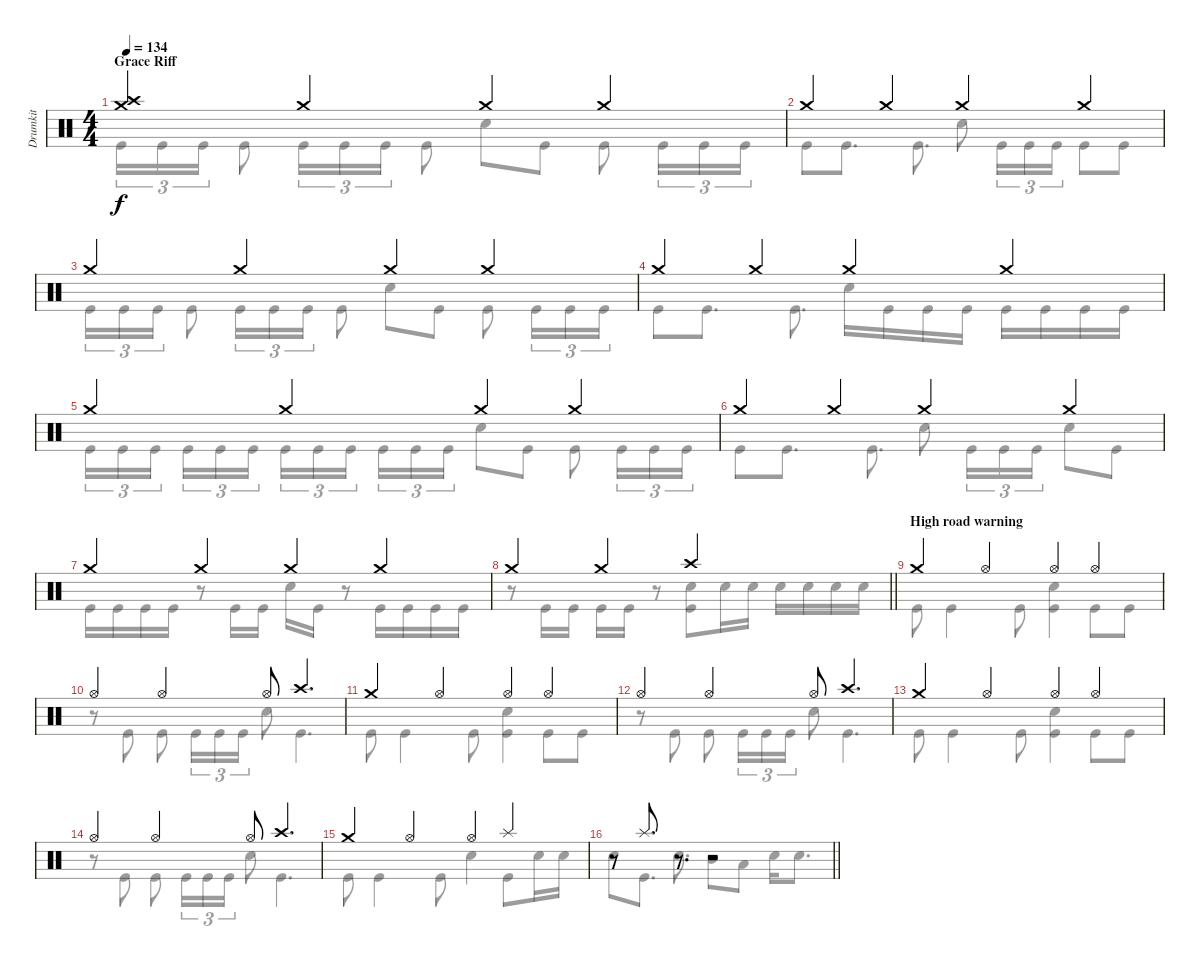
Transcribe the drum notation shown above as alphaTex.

\track ("Drumkit" "Drumkit") {instrument percussion}
\staff {score}
\articulation defaults
\voice
\ts (4 4)
\section ("" "Grace Riff")
\tempo 134
\clef neutral
\ks c
("Crash high (hit)" "Crash medium (hit)").4{dy f} "Crash medium (hit)".4 "Crash medium (hit)".4 "Crash medium (hit)".4 |
"Crash medium (hit)".4 "Crash medium (hit)".4 "Crash medium (hit)".4 "Crash medium (hit)".4 |
"Crash medium (hit)".4 "Crash medium (hit)".4 "Crash medium (hit)".4 "Crash medium (hit)".4 |
"Crash medium (hit)".4 "Crash medium (hit)".4 "Crash medium (hit)".4 "Crash medium (hit)".4 |
"Crash medium (hit)".4 "Crash medium (hit)".4 "Crash medium (hit)".4 "Crash medium (hit)".4 |
"Crash medium (hit)".4 "Crash medium (hit)".4 "Crash medium (hit)".4 "Crash medium (hit)".4 |
"Crash medium (hit)".4 "Crash medium (hit)".4 "Crash medium (hit)".4 "Crash medium (hit)".4 |
\barLineRight lightlight "Crash medium (hit)".4 "Crash medium (hit)".4 "Crash high (hit)".2
|
\section ("" "High road warning")
"Crash medium (hit)".4 "Hi-Hat (open)".4 "Hi-Hat (open)".4 "Hi-Hat (open)".4 |
"Hi-Hat (open)".4 "Hi-Hat (open)".4 "Hi-Hat (open)".8 "Crash high (hit)".4{d} |
"Crash medium (hit)".4 "Hi-Hat (open)".4 "Hi-Hat (open)".4 "Hi-Hat (open)".4 |
"Hi-Hat (open)".4 "Hi-Hat (open)".4 "Hi-Hat (open)".8 "Crash high (hit)".4{d} |
"Crash medium (hit)".4 "Hi-Hat (open)".4 "Hi-Hat (open)".4 "Hi-Hat (open)".4 |
"Hi-Hat (open)".4 "Hi-Hat (open)".4 "Hi-Hat (open)".8 "Crash high (hit)".4{d} |
"Crash medium (hit)".4 "Hi-Hat (open)".4 "Hi-Hat (open)".4 "Splash (hit)".4 |
\barLineRight lightlight
r.8 "Splash (hit)".8{d} r.8{d} r.2
\voice
\clef neutral
\ottava regular
\simile none
\ks c "Kick (hit)".16{tu (3 2) dy f} "Kick (hit)".16{tu (3 2)} "Kick (hit)".16{tu (3 2)} "Kick (hit)".8 "Kick (hit)".16{tu (3 2)} "Kick (hit)".16{tu (3 2)} "Kick (hit)".16{tu (3 2)} "Kick (hit)".8 "Snare (hit) 2".8 "Kick (hit)".8 "Kick (hit)".8 "Kick (hit)".16{tu (3 2)} "Kick (hit)".16{tu (3 2)} "Kick (hit)".16{tu (3 2)}
|
"Kick (hit)".8 "Kick (hit)".8{d} "Kick (hit)".8{d} "Snare (hit) 2".8 "Kick (hit)".16{tu (3 2)} "Kick (hit)".16{tu (3 2)} "Kick (hit)".16{tu (3 2)} "Kick (hit)".8 "Kick (hit)".8 |
"Kick (hit)".16{tu (3 2)} "Kick (hit)".16{tu (3 2)} "Kick (hit)".16{tu (3 2)} "Kick (hit)".8 "Kick (hit)".16{tu (3 2)} "Kick (hit)".16{tu (3 2)} "Kick (hit)".16{tu (3 2)} "Kick (hit)".8 "Snare (hit) 2".8 "Kick (hit)".8 "Kick (hit)".8 "Kick (hit)".16{tu (3 2)} "Kick (hit)".16{tu (3 2)} "Kick (hit)".16{tu (3 2)} |
"Kick (hit)".8 "Kick (hit)".8{d} "Kick (hit)".8{d} "Snare (hit) 2".16 "Kick (hit)".16 "Kick (hit)".16 "Kick (hit)".16 "Kick (hit)".16 "Kick (hit)".16 "Kick (hit)".16 "Kick (hit)".16 |
"Kick (hit)".16{tu (3 2)} "Kick (hit)".16{tu (3 2)} "Kick (hit)".16{tu (3 2) beam splitsecondary} "Kick (hit)".16{tu (3 2)} "Kick (hit)".16{tu (3 2)} "Kick (hit)".16{tu (3 2)} "Kick (hit)".16{tu (3 2)} "Kick (hit)".16{tu (3 2)} "Kick (hit)".16{tu (3 2) beam splitsecondary} "Kick (hit)".16{tu (3 2)} "Kick (hit)".16{tu (3 2)} "Kick (hit)".16{tu (3 2)} "Snare (hit) 2".8 "Kick (hit)".8 "Kick (hit)".8 "Kick (hit)".16{tu (3 2)} "Kick (hit)".16{tu (3 2)} "Kick (hit)".16{tu (3 2)} |
"Kick (hit)".8 "Kick (hit)".8{d} "Kick (hit)".8{d} "Snare (hit) 2".8 "Kick (hit)".16{tu (3 2)} "Kick (hit)".16{tu (3 2)} "Kick (hit)".16{tu (3 2)} "Snare (hit) 2".8 "Kick (hit)".8 |
"Kick (hit)".16 "Kick (hit)".16 "Kick (hit)".16 "Kick (hit)".16 r.8 "Kick (hit)".16 "Kick (hit)".16 "Snare (hit) 2".16 "Kick (hit)".16 r.8 "Kick (hit)".16 "Kick (hit)".16 "Kick (hit)".16 "Kick (hit)".16 |
\barLineRight lightlight
r.8 "Kick (hit)".16 "Kick (hit)".16 "Kick (hit)".16 "Kick (hit)".16 r.8 ("Snare (hit) 2" "Kick (hit)").8 "Snare (hit) 2".16 "Snare (hit) 2".16 "Snare (hit) 2".16 "Snare (hit) 2".16 "Snare (hit) 2".16 "Snare (hit) 2".16 |
"Kick (hit)".8 "Kick (hit)".4 "Kick (hit)".8 ("Snare (hit) 2" "Kick (hit)").4 "Kick (hit)".8 "Kick (hit)".8 |
r.8 "Kick (hit)".8 "Kick (hit)".8 "Kick (hit)".16{tu (3 2)} "Kick (hit)".16{tu (3 2)} "Kick (hit)".16{tu (3 2)} "Snare (hit) 2".8 "Kick (hit)".4{d} |
"Kick (hit)".8 "Kick (hit)".4 "Kick (hit)".8 ("Snare (hit) 2" "Kick (hit)").4 "Kick (hit)".8 "Kick (hit)".8 |
r.8 "Kick (hit)".8 "Kick (hit)".8 "Kick (hit)".16{tu (3 2)} "Kick (hit)".16{tu (3 2)} "Kick (hit)".16{tu (3 2)} "Snare (hit) 2".8 "Kick (hit)".4{d} |
"Kick (hit)".8 "Kick (hit)".4 "Kick (hit)".8 ("Snare (hit) 2" "Kick (hit)").4 "Kick (hit)".8 "Kick (hit)".8 |
r.8 "Kick (hit)".8 "Kick (hit)".8 "Kick (hit)".16{tu (3 2)} "Kick (hit)".16{tu (3 2)} "Kick (hit)".16{tu (3 2)} "Snare (hit) 2".8 "Kick (hit)".4{d} |
"Kick (hit)".8 "Kick (hit)".4 "Kick (hit)".8 "Snare (hit) 2".4 "Kick (hit)".8 "Snare (hit) 2".16 "Snare (hit) 2".16 |
\barLineRight lightlight "Snare (hit) 2".8 "Kick (hit)".8{d} "Snare (hit) 2".8{d} "Mid Tom (hit)".8 "Low Tom (hit)".8 "Snare (hit) 2".16 "Snare (hit) 2".8{d}
